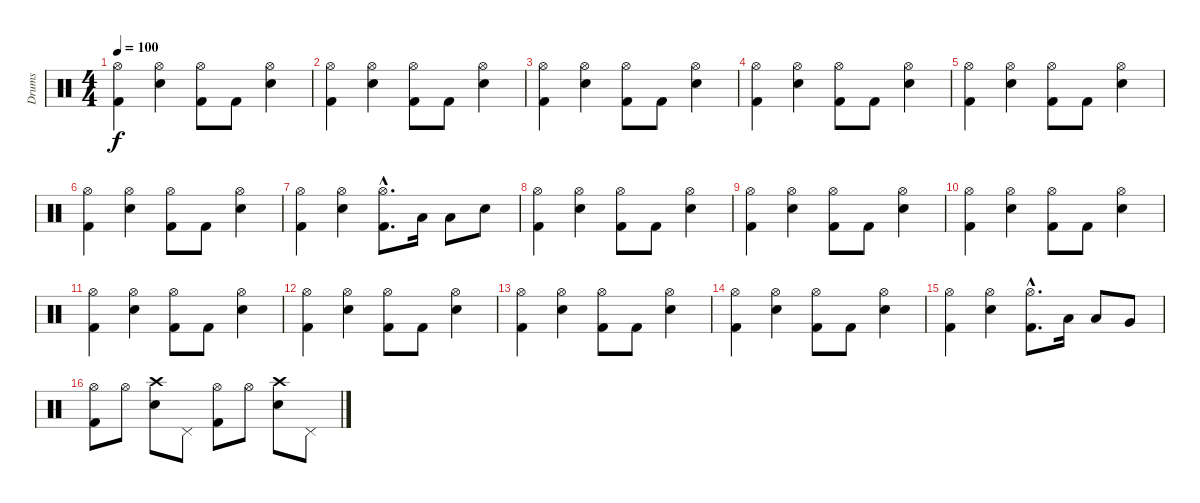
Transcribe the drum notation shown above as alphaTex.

\track ("Drums" "Drums") {instrument percussion}
\staff {score}
\articulation defaults
\ts (4 4)
\tempo 100
\clef neutral
\ks c
("Hi-Hat (open)" "Kick (hit) 2").4{dy f} ("Hi-Hat (open)" "Electric Snare (hit)").4 ("Hi-Hat (open)" "Kick (hit) 2").8 "Kick (hit) 2".8 ("Hi-Hat (open)" "Electric Snare (hit)").4 |
("Hi-Hat (open)" "Kick (hit) 2").4 ("Hi-Hat (open)" "Electric Snare (hit)").4 ("Hi-Hat (open)" "Kick (hit) 2").8 "Kick (hit) 2".8 ("Hi-Hat (open)" "Electric Snare (hit)").4 |
("Hi-Hat (open)" "Kick (hit) 2").4 ("Hi-Hat (open)" "Electric Snare (hit)").4 ("Hi-Hat (open)" "Kick (hit) 2").8 "Kick (hit) 2".8 ("Hi-Hat (open)" "Electric Snare (hit)").4 |
("Hi-Hat (open)" "Kick (hit) 2").4 ("Hi-Hat (open)" "Electric Snare (hit)").4 ("Hi-Hat (open)" "Kick (hit) 2").8 "Kick (hit) 2".8 ("Hi-Hat (open)" "Electric Snare (hit)").4 |
("Hi-Hat (open)" "Kick (hit) 2").4 ("Hi-Hat (open)" "Electric Snare (hit)").4 ("Hi-Hat (open)" "Kick (hit) 2").8 "Kick (hit) 2".8 ("Hi-Hat (open)" "Electric Snare (hit)").4 |
("Hi-Hat (open)" "Kick (hit) 2").4 ("Hi-Hat (open)" "Electric Snare (hit)").4 ("Hi-Hat (open)" "Kick (hit) 2").8 "Kick (hit) 2".8 ("Hi-Hat (open)" "Electric Snare (hit)").4 |
("Hi-Hat (open)" "Kick (hit) 2").4 ("Hi-Hat (open)" "Electric Snare (hit)").4 ("Hi-Hat (open)"{hac} "Kick (hit) 2"{hac}).8{d} "Low Tom (hit)".16 "Low Tom (hit)".8 "Electric Snare (hit)".8 |
("Hi-Hat (open)" "Kick (hit) 2").4 ("Hi-Hat (open)" "Electric Snare (hit)").4 ("Hi-Hat (open)" "Kick (hit) 2").8 "Kick (hit) 2".8 ("Hi-Hat (open)" "Electric Snare (hit)").4 |
("Hi-Hat (open)" "Kick (hit) 2").4 ("Hi-Hat (open)" "Electric Snare (hit)").4 ("Hi-Hat (open)" "Kick (hit) 2").8 "Kick (hit) 2".8 ("Hi-Hat (open)" "Electric Snare (hit)").4 |
("Hi-Hat (open)" "Kick (hit) 2").4 ("Hi-Hat (open)" "Electric Snare (hit)").4 ("Hi-Hat (open)" "Kick (hit) 2").8 "Kick (hit) 2".8 ("Hi-Hat (open)" "Electric Snare (hit)").4 |
("Hi-Hat (open)" "Kick (hit) 2").4 ("Hi-Hat (open)" "Electric Snare (hit)").4 ("Hi-Hat (open)" "Kick (hit) 2").8 "Kick (hit) 2".8 ("Hi-Hat (open)" "Electric Snare (hit)").4 |
("Hi-Hat (open)" "Kick (hit) 2").4 ("Hi-Hat (open)" "Electric Snare (hit)").4 ("Hi-Hat (open)" "Kick (hit) 2").8 "Kick (hit) 2".8 ("Hi-Hat (open)" "Electric Snare (hit)").4 |
("Hi-Hat (open)" "Kick (hit) 2").4 ("Hi-Hat (open)" "Electric Snare (hit)").4 ("Hi-Hat (open)" "Kick (hit) 2").8 "Kick (hit) 2".8 ("Hi-Hat (open)" "Electric Snare (hit)").4 |
("Hi-Hat (open)" "Kick (hit) 2").4 ("Hi-Hat (open)" "Electric Snare (hit)").4 ("Hi-Hat (open)" "Kick (hit) 2").8 "Kick (hit) 2".8 ("Hi-Hat (open)" "Electric Snare (hit)").4 |
("Hi-Hat (open)" "Kick (hit) 2").4 ("Hi-Hat (open)" "Electric Snare (hit)").4 ("Hi-Hat (open)"{hac} "Kick (hit) 2"{hac}).8{d} "Low Tom (hit)".16 "Low Tom (hit)".8 "Very Low Tom (hit)".8 |
("Hi-Hat (open)" "Kick (hit) 2").8 "Hi-Hat (open)".8 ("Crash high (hit)" "Electric Snare (hit)").8 "Pedal Hi-Hat (hit)".8 ("Hi-Hat (open)" "Kick (hit) 2").8 "Hi-Hat (open)".8 ("Crash high (hit)" "Electric Snare (hit)").8 "Pedal Hi-Hat (hit)".8
